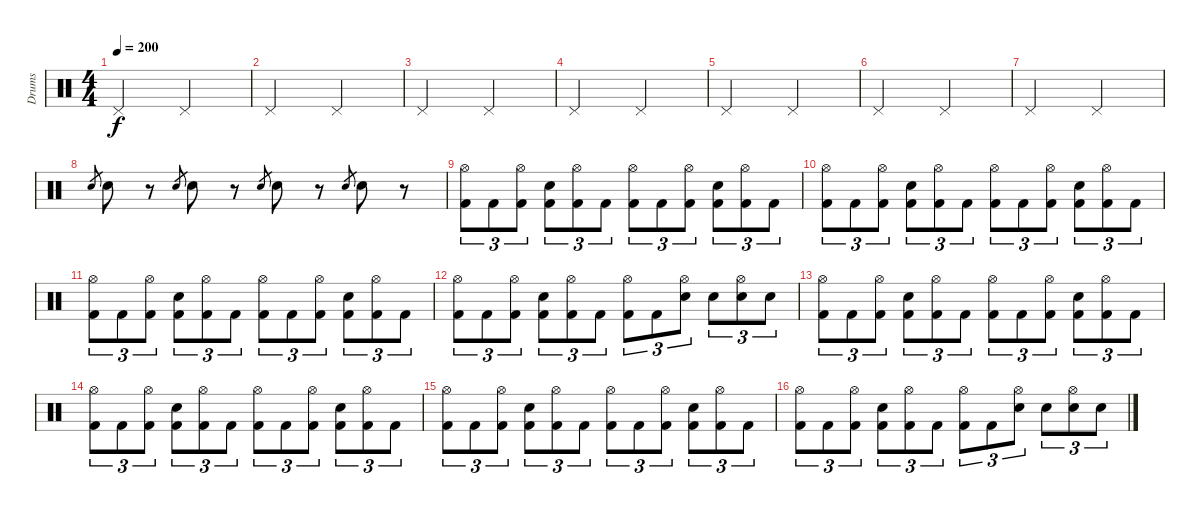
\track ("Drums" "Drums") {instrument percussion}
\staff {score}
\articulation defaults
\ts (4 4)
\tempo 200
\clef neutral
\ks c "Pedal Hi-Hat (hit)".2{dy f} "Pedal Hi-Hat (hit)".2
|
"Pedal Hi-Hat (hit)".2 "Pedal Hi-Hat (hit)".2 |
"Pedal Hi-Hat (hit)".2 "Pedal Hi-Hat (hit)".2 |
"Pedal Hi-Hat (hit)".2 "Pedal Hi-Hat (hit)".2 |
"Pedal Hi-Hat (hit)".2 "Pedal Hi-Hat (hit)".2 |
"Pedal Hi-Hat (hit)".2 "Pedal Hi-Hat (hit)".2 |
"Pedal Hi-Hat (hit)".2 "Pedal Hi-Hat (hit)".2 |
"Snare (hit) 2".8{gr} "Snare (hit) 2".8 r.8 "Snare (hit) 2".8{gr} "Snare (hit) 2".8 r.8 "Snare (hit) 2".8{gr} "Snare (hit) 2".8 r.8 "Snare (hit) 2".8{gr} "Snare (hit) 2".8 r.8 |
("Hi-Hat (open)" "Kick (hit) 2").8{tu (3 2)} "Kick (hit) 2".8{tu (3 2)} ("Hi-Hat (open)" "Kick (hit) 2").8{tu (3 2)} ("Snare (hit) 2" "Kick (hit) 2").8{tu (3 2)} ("Hi-Hat (open)" "Kick (hit) 2").8{tu (3 2)} "Kick (hit) 2".8{tu (3 2)} ("Hi-Hat (open)" "Kick (hit) 2").8{tu (3 2)} "Kick (hit) 2".8{tu (3 2)} ("Hi-Hat (open)" "Kick (hit) 2").8{tu (3 2)} ("Snare (hit) 2" "Kick (hit) 2").8{tu (3 2)} ("Hi-Hat (open)" "Kick (hit) 2").8{tu (3 2)} "Kick (hit) 2".8{tu (3 2)} |
("Hi-Hat (open)" "Kick (hit) 2").8{tu (3 2)} "Kick (hit) 2".8{tu (3 2)} ("Hi-Hat (open)" "Kick (hit) 2").8{tu (3 2)} ("Snare (hit) 2" "Kick (hit) 2").8{tu (3 2)} ("Hi-Hat (open)" "Kick (hit) 2").8{tu (3 2)} "Kick (hit) 2".8{tu (3 2)} ("Hi-Hat (open)" "Kick (hit) 2").8{tu (3 2)} "Kick (hit) 2".8{tu (3 2)} ("Hi-Hat (open)" "Kick (hit) 2").8{tu (3 2)} ("Snare (hit) 2" "Kick (hit) 2").8{tu (3 2)} ("Hi-Hat (open)" "Kick (hit) 2").8{tu (3 2)} "Kick (hit) 2".8{tu (3 2)} |
("Hi-Hat (open)" "Kick (hit) 2").8{tu (3 2)} "Kick (hit) 2".8{tu (3 2)} ("Hi-Hat (open)" "Kick (hit) 2").8{tu (3 2)} ("Snare (hit) 2" "Kick (hit) 2").8{tu (3 2)} ("Hi-Hat (open)" "Kick (hit) 2").8{tu (3 2)} "Kick (hit) 2".8{tu (3 2)} ("Hi-Hat (open)" "Kick (hit) 2").8{tu (3 2)} "Kick (hit) 2".8{tu (3 2)} ("Hi-Hat (open)" "Kick (hit) 2").8{tu (3 2)} ("Snare (hit) 2" "Kick (hit) 2").8{tu (3 2)} ("Hi-Hat (open)" "Kick (hit) 2").8{tu (3 2)} "Kick (hit) 2".8{tu (3 2)} |
("Hi-Hat (open)" "Kick (hit) 2").8{tu (3 2)} "Kick (hit) 2".8{tu (3 2)} ("Hi-Hat (open)" "Kick (hit) 2").8{tu (3 2)} ("Snare (hit) 2" "Kick (hit) 2").8{tu (3 2)} ("Hi-Hat (open)" "Kick (hit) 2").8{tu (3 2)} "Kick (hit) 2".8{tu (3 2)} ("Hi-Hat (open)" "Kick (hit) 2").8{tu (3 2)} "Kick (hit) 2".8{tu (3 2)} ("Hi-Hat (open)" "Snare (hit) 2").8{tu (3 2)} "Snare (hit) 2".8{tu (3 2)} ("Hi-Hat (open)" "Snare (hit) 2").8{tu (3 2)} "Snare (hit) 2".8{tu (3 2)} |
("Hi-Hat (open)" "Kick (hit) 2").8{tu (3 2)} "Kick (hit) 2".8{tu (3 2)} ("Hi-Hat (open)" "Kick (hit) 2").8{tu (3 2)} ("Snare (hit) 2" "Kick (hit) 2").8{tu (3 2)} ("Hi-Hat (open)" "Kick (hit) 2").8{tu (3 2)} "Kick (hit) 2".8{tu (3 2)} ("Hi-Hat (open)" "Kick (hit) 2").8{tu (3 2)} "Kick (hit) 2".8{tu (3 2)} ("Hi-Hat (open)" "Kick (hit) 2").8{tu (3 2)} ("Snare (hit) 2" "Kick (hit) 2").8{tu (3 2)} ("Hi-Hat (open)" "Kick (hit) 2").8{tu (3 2)} "Kick (hit) 2".8{tu (3 2)} |
("Hi-Hat (open)" "Kick (hit) 2").8{tu (3 2)} "Kick (hit) 2".8{tu (3 2)} ("Hi-Hat (open)" "Kick (hit) 2").8{tu (3 2)} ("Snare (hit) 2" "Kick (hit) 2").8{tu (3 2)} ("Hi-Hat (open)" "Kick (hit) 2").8{tu (3 2)} "Kick (hit) 2".8{tu (3 2)} ("Hi-Hat (open)" "Kick (hit) 2").8{tu (3 2)} "Kick (hit) 2".8{tu (3 2)} ("Hi-Hat (open)" "Kick (hit) 2").8{tu (3 2)} ("Snare (hit) 2" "Kick (hit) 2").8{tu (3 2)} ("Hi-Hat (open)" "Kick (hit) 2").8{tu (3 2)} "Kick (hit) 2".8{tu (3 2)} |
("Hi-Hat (open)" "Kick (hit) 2").8{tu (3 2)} "Kick (hit) 2".8{tu (3 2)} ("Hi-Hat (open)" "Kick (hit) 2").8{tu (3 2)} ("Snare (hit) 2" "Kick (hit) 2").8{tu (3 2)} ("Hi-Hat (open)" "Kick (hit) 2").8{tu (3 2)} "Kick (hit) 2".8{tu (3 2)} ("Hi-Hat (open)" "Kick (hit) 2").8{tu (3 2)} "Kick (hit) 2".8{tu (3 2)} ("Hi-Hat (open)" "Kick (hit) 2").8{tu (3 2)} ("Snare (hit) 2" "Kick (hit) 2").8{tu (3 2)} ("Hi-Hat (open)" "Kick (hit) 2").8{tu (3 2)} "Kick (hit) 2".8{tu (3 2)} |
("Hi-Hat (open)" "Kick (hit) 2").8{tu (3 2)} "Kick (hit) 2".8{tu (3 2)} ("Hi-Hat (open)" "Kick (hit) 2").8{tu (3 2)} ("Snare (hit) 2" "Kick (hit) 2").8{tu (3 2)} ("Hi-Hat (open)" "Kick (hit) 2").8{tu (3 2)} "Kick (hit) 2".8{tu (3 2)} ("Hi-Hat (open)" "Kick (hit) 2").8{tu (3 2)} "Kick (hit) 2".8{tu (3 2)} ("Hi-Hat (open)" "Snare (hit) 2").8{tu (3 2)} "Snare (hit) 2".8{tu (3 2)} ("Hi-Hat (open)" "Snare (hit) 2").8{tu (3 2)} "Snare (hit) 2".8{tu (3 2)}
